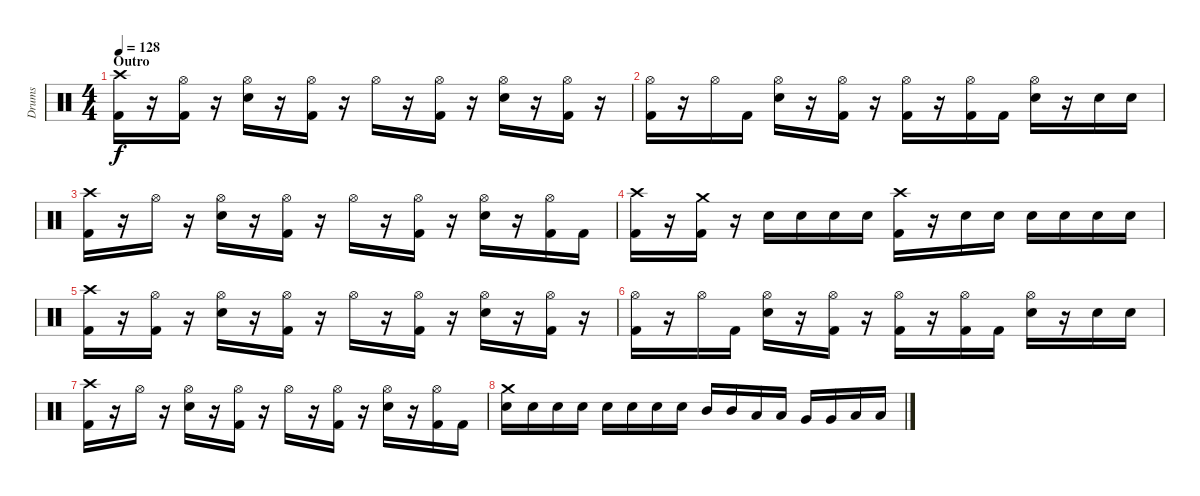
\track ("Drums" "Drums") {instrument percussion}
\staff {score}
\articulation defaults
\ts (4 4)
\section ("" "Outro")
\tempo 128
\clef neutral
\ks c
("Crash high (hit)" "Kick (hit) 2").16{dy f volume 8} r.16 ("Hi-Hat (open)" "Kick (hit) 2").16 r.16 ("Hi-Hat (open)" "Snare (hit) 2").16 r.16 ("Hi-Hat (open)" "Kick (hit) 2").16 r.16 "Hi-Hat (open)".16 r.16 ("Hi-Hat (open)" "Kick (hit) 2").16 r.16 ("Hi-Hat (open)" "Snare (hit) 2").16 r.16 ("Hi-Hat (open)" "Kick (hit) 2").16 r.16 |
("Hi-Hat (open)" "Kick (hit) 2").16 r.16 "Hi-Hat (open)".16 "Kick (hit) 2".16 ("Hi-Hat (open)" "Snare (hit) 2").16 r.16 ("Hi-Hat (open)" "Kick (hit) 2").16 r.16 ("Hi-Hat (open)" "Kick (hit) 2").16 r.16 ("Hi-Hat (open)" "Kick (hit) 2").16 "Kick (hit) 2".16 ("Hi-Hat (open)" "Snare (hit) 2").16 r.16 "Snare (hit) 2".16 "Snare (hit) 2".16 |
("Crash high (hit)" "Kick (hit) 2").16 r.16 "Hi-Hat (open)".16 r.16 ("Hi-Hat (open)" "Snare (hit) 2").16 r.16 ("Hi-Hat (open)" "Kick (hit) 2").16 r.16 "Hi-Hat (open)".16 r.16 ("Hi-Hat (open)" "Kick (hit) 2").16 r.16 ("Hi-Hat (open)" "Snare (hit) 2").16 r.16 ("Hi-Hat (open)" "Kick (hit) 2").16 "Kick (hit) 2".16 |
("Crash high (hit)" "Kick (hit) 2").16 r.16 ("Crash medium (hit)" "Kick (hit) 2").16 r.16 "Snare (hit) 2".16 "Snare (hit) 2".16 "Snare (hit) 2".16 "Snare (hit) 2".16 ("Crash high (hit)" "Kick (hit) 2").16 r.16 "Snare (hit) 2".16 "Snare (hit) 2".16 "Snare (hit) 2".16 "Snare (hit) 2".16 "Snare (hit) 2".16 "Snare (hit) 2".16 |
("Crash high (hit)" "Kick (hit) 2").16{volume 0} r.16 ("Hi-Hat (open)" "Kick (hit) 2").16 r.16 ("Hi-Hat (open)" "Snare (hit) 2").16 r.16 ("Hi-Hat (open)" "Kick (hit) 2").16 r.16 "Hi-Hat (open)".16 r.16 ("Hi-Hat (open)" "Kick (hit) 2").16 r.16 ("Hi-Hat (open)" "Snare (hit) 2").16 r.16 ("Hi-Hat (open)" "Kick (hit) 2").16 r.16 |
("Hi-Hat (open)" "Kick (hit) 2").16 r.16 "Hi-Hat (open)".16 "Kick (hit) 2".16 ("Hi-Hat (open)" "Snare (hit) 2").16 r.16 ("Hi-Hat (open)" "Kick (hit) 2").16 r.16 ("Hi-Hat (open)" "Kick (hit) 2").16 r.16 ("Hi-Hat (open)" "Kick (hit) 2").16 "Kick (hit) 2".16 ("Hi-Hat (open)" "Snare (hit) 2").16 r.16 "Snare (hit) 2".16 "Snare (hit) 2".16 |
("Crash high (hit)" "Kick (hit) 2").16 r.16 "Hi-Hat (open)".16 r.16 ("Hi-Hat (open)" "Snare (hit) 2").16 r.16 ("Hi-Hat (open)" "Kick (hit) 2").16 r.16 "Hi-Hat (open)".16 r.16 ("Hi-Hat (open)" "Kick (hit) 2").16 r.16 ("Hi-Hat (open)" "Snare (hit) 2").16 r.16 ("Hi-Hat (open)" "Kick (hit) 2").16 "Kick (hit) 2".16 |
("Crash medium (hit)" "Snare (hit) 2").16 "Snare (hit) 2".16 "Snare (hit) 2".16 "Snare (hit) 2".16 "Snare (hit) 2".16 "Snare (hit) 2".16 "Snare (hit) 2".16 "Snare (hit) 2".16 "Mid Tom (hit)".16 "Mid Tom (hit)".16 "Low Tom (hit)".16 "Low Tom (hit)".16 "Very Low Tom (hit)".16 "Very Low Tom (hit)".16 "Low Tom (hit)".16 "Low Tom (hit)".16
